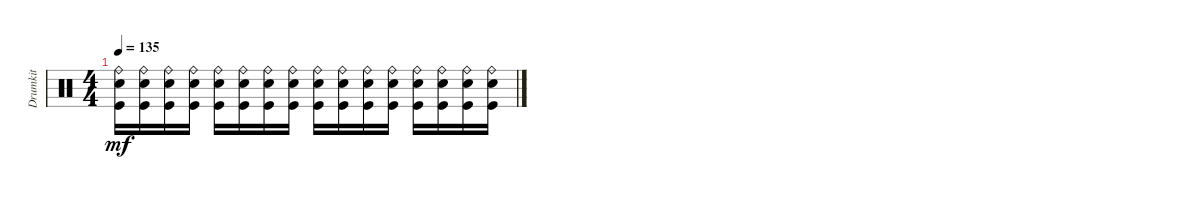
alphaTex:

\track ("Drumkit" "Drumkit") {instrument percussion}
\staff {score}
\articulation defaults
\ts (4 4)
\tempo 135
\clef neutral
\ks c
("Kick (hit)" "Snare (hit) 2" "Ride (bell)").16{dy mf} ("Kick (hit)" "Snare (hit) 2" "Ride (bell)").16 ("Kick (hit)" "Snare (hit) 2" "Ride (bell)").16 ("Kick (hit)" "Snare (hit) 2" "Ride (bell)").16 ("Kick (hit)" "Snare (hit) 2" "Ride (bell)").16 ("Kick (hit)" "Snare (hit) 2" "Ride (bell)").16 ("Kick (hit)" "Snare (hit) 2" "Ride (bell)").16 ("Kick (hit)" "Snare (hit) 2" "Ride (bell)").16 ("Kick (hit)" "Snare (hit) 2" "Ride (bell)").16 ("Kick (hit)" "Snare (hit) 2" "Ride (bell)").16 ("Kick (hit)" "Snare (hit) 2" "Ride (bell)").16 ("Kick (hit)" "Snare (hit) 2" "Ride (bell)").16 ("Kick (hit)" "Snare (hit) 2" "Ride (bell)").16 ("Kick (hit)" "Snare (hit) 2" "Ride (bell)").16 ("Kick (hit)" "Snare (hit) 2" "Ride (bell)").16 ("Kick (hit)" "Snare (hit) 2" "Ride (bell)").16
